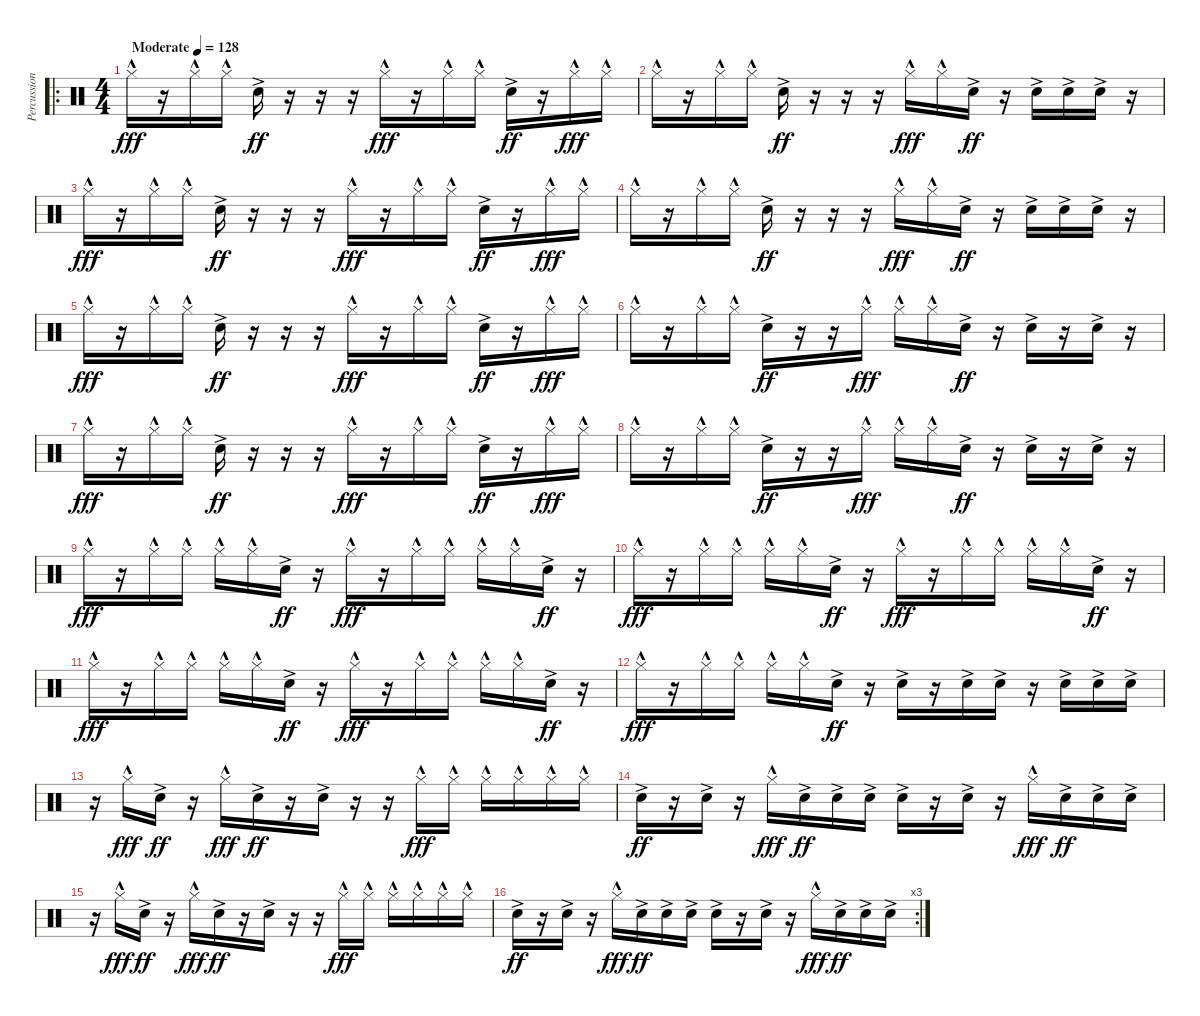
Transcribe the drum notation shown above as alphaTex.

\track ("Percussion" "Percussion") {instrument percussion}
\staff {score}
\articulation defaults
\ro
\ts (4 4)
\tempo (128 "Moderate")
\clef neutral
\ks c "Hi-Hat (closed)"{hac}.16{dy fff}
r.16 "Hi-Hat (closed)"{hac}.16 "Hi-Hat (closed)"{hac}.16 "Snare (hit) 2"{ac}.16{dy ff} r.16 r.16 r.16 "Hi-Hat (closed)"{hac}.16{dy fff} r.16 "Hi-Hat (closed)"{hac}.16 "Hi-Hat (closed)"{hac}.16 "Snare (hit) 2"{ac}.16{dy ff} r.16 "Hi-Hat (closed)"{hac}.16{dy fff} "Hi-Hat (closed)"{hac}.16 |
"Hi-Hat (closed)"{hac}.16 r.16 "Hi-Hat (closed)"{hac}.16 "Hi-Hat (closed)"{hac}.16 "Snare (hit) 2"{ac}.16{dy ff} r.16 r.16 r.16 "Hi-Hat (closed)"{hac}.16{dy fff} "Hi-Hat (closed)"{hac}.16 "Snare (hit) 2"{ac}.16{dy ff} r.16 "Snare (hit) 2"{ac}.16 "Snare (hit) 2"{ac}.16 "Snare (hit) 2"{ac}.16 r.16 |
"Hi-Hat (closed)"{hac}.16{dy fff} r.16 "Hi-Hat (closed)"{hac}.16 "Hi-Hat (closed)"{hac}.16 "Snare (hit) 2"{ac}.16{dy ff} r.16 r.16 r.16 "Hi-Hat (closed)"{hac}.16{dy fff} r.16 "Hi-Hat (closed)"{hac}.16 "Hi-Hat (closed)"{hac}.16 "Snare (hit) 2"{ac}.16{dy ff} r.16 "Hi-Hat (closed)"{hac}.16{dy fff} "Hi-Hat (closed)"{hac}.16 |
"Hi-Hat (closed)"{hac}.16 r.16 "Hi-Hat (closed)"{hac}.16 "Hi-Hat (closed)"{hac}.16 "Snare (hit) 2"{ac}.16{dy ff} r.16 r.16 r.16 "Hi-Hat (closed)"{hac}.16{dy fff} "Hi-Hat (closed)"{hac}.16 "Snare (hit) 2"{ac}.16{dy ff} r.16 "Snare (hit) 2"{ac}.16 "Snare (hit) 2"{ac}.16 "Snare (hit) 2"{ac}.16 r.16 |
"Hi-Hat (closed)"{hac}.16{dy fff} r.16 "Hi-Hat (closed)"{hac}.16 "Hi-Hat (closed)"{hac}.16 "Snare (hit) 2"{ac}.16{dy ff} r.16 r.16 r.16 "Hi-Hat (closed)"{hac}.16{dy fff} r.16 "Hi-Hat (closed)"{hac}.16 "Hi-Hat (closed)"{hac}.16 "Snare (hit) 2"{ac}.16{dy ff} r.16 "Hi-Hat (closed)"{hac}.16{dy fff} "Hi-Hat (closed)"{hac}.16 |
"Hi-Hat (closed)"{hac}.16 r.16 "Hi-Hat (closed)"{hac}.16 "Hi-Hat (closed)"{hac}.16 "Snare (hit) 2"{ac}.16{dy ff} r.16 r.16 "Hi-Hat (closed)"{hac}.16{dy fff} "Hi-Hat (closed)"{hac}.16 "Hi-Hat (closed)"{hac}.16 "Snare (hit) 2"{ac}.16{dy ff} r.16 "Snare (hit) 2"{ac}.16 r.16 "Snare (hit) 2"{ac}.16 r.16 |
"Hi-Hat (closed)"{hac}.16{dy fff} r.16 "Hi-Hat (closed)"{hac}.16 "Hi-Hat (closed)"{hac}.16 "Snare (hit) 2"{ac}.16{dy ff} r.16 r.16 r.16 "Hi-Hat (closed)"{hac}.16{dy fff} r.16 "Hi-Hat (closed)"{hac}.16 "Hi-Hat (closed)"{hac}.16 "Snare (hit) 2"{ac}.16{dy ff} r.16 "Hi-Hat (closed)"{hac}.16{dy fff} "Hi-Hat (closed)"{hac}.16 |
"Hi-Hat (closed)"{hac}.16 r.16 "Hi-Hat (closed)"{hac}.16 "Hi-Hat (closed)"{hac}.16 "Snare (hit) 2"{ac}.16{dy ff} r.16 r.16 "Hi-Hat (closed)"{hac}.16{dy fff} "Hi-Hat (closed)"{hac}.16 "Hi-Hat (closed)"{hac}.16 "Snare (hit) 2"{ac}.16{dy ff} r.16 "Snare (hit) 2"{ac}.16 r.16 "Snare (hit) 2"{ac}.16 r.16 |
"Hi-Hat (closed)"{hac}.16{dy fff} r.16 "Hi-Hat (closed)"{hac}.16 "Hi-Hat (closed)"{hac}.16 "Hi-Hat (closed)"{hac}.16 "Hi-Hat (closed)"{hac}.16 "Snare (hit) 2"{ac}.16{dy ff} r.16 "Hi-Hat (closed)"{hac}.16{dy fff} r.16 "Hi-Hat (closed)"{hac}.16 "Hi-Hat (closed)"{hac}.16 "Hi-Hat (closed)"{hac}.16 "Hi-Hat (closed)"{hac}.16 "Snare (hit) 2"{ac}.16{dy ff} r.16 |
"Hi-Hat (closed)"{hac}.16{dy fff} r.16 "Hi-Hat (closed)"{hac}.16 "Hi-Hat (closed)"{hac}.16 "Hi-Hat (closed)"{hac}.16 "Hi-Hat (closed)"{hac}.16 "Snare (hit) 2"{ac}.16{dy ff} r.16 "Hi-Hat (closed)"{hac}.16{dy fff} r.16 "Hi-Hat (closed)"{hac}.16 "Hi-Hat (closed)"{hac}.16 "Hi-Hat (closed)"{hac}.16 "Hi-Hat (closed)"{hac}.16 "Snare (hit) 2"{ac}.16{dy ff} r.16 |
"Hi-Hat (closed)"{hac}.16{dy fff} r.16 "Hi-Hat (closed)"{hac}.16 "Hi-Hat (closed)"{hac}.16 "Hi-Hat (closed)"{hac}.16 "Hi-Hat (closed)"{hac}.16 "Snare (hit) 2"{ac}.16{dy ff} r.16 "Hi-Hat (closed)"{hac}.16{dy fff} r.16 "Hi-Hat (closed)"{hac}.16 "Hi-Hat (closed)"{hac}.16 "Hi-Hat (closed)"{hac}.16 "Hi-Hat (closed)"{hac}.16 "Snare (hit) 2"{ac}.16{dy ff} r.16 |
"Hi-Hat (closed)"{hac}.16{dy fff} r.16 "Hi-Hat (closed)"{hac}.16 "Hi-Hat (closed)"{hac}.16 "Hi-Hat (closed)"{hac}.16 "Hi-Hat (closed)"{hac}.16 "Snare (hit) 2"{ac}.16{dy ff} r.16 "Snare (hit) 2"{ac}.16 r.16 "Snare (hit) 2"{ac}.16 "Snare (hit) 2"{ac}.16 r.16 "Snare (hit) 2"{ac}.16 "Snare (hit) 2"{ac}.16 "Snare (hit) 2"{ac}.16 |
r.16 "Hi-Hat (closed)"{hac}.16{dy fff} "Snare (hit) 2"{ac}.16{dy ff} r.16 "Hi-Hat (closed)"{hac}.16{dy fff} "Snare (hit) 2"{ac}.16{dy ff} r.16 "Snare (hit) 2"{ac}.16 r.16 r.16 "Hi-Hat (closed)"{hac}.16{dy fff} "Hi-Hat (closed)"{hac}.16 "Hi-Hat (closed)"{hac}.16 "Hi-Hat (closed)"{hac}.16 "Hi-Hat (closed)"{hac}.16 "Hi-Hat (closed)"{hac}.16 |
"Snare (hit) 2"{ac}.16{dy ff} r.16 "Snare (hit) 2"{ac}.16 r.16 "Hi-Hat (closed)"{hac}.16{dy fff} "Snare (hit) 2"{ac}.16{dy ff} "Snare (hit) 2"{ac}.16 "Snare (hit) 2"{ac}.16 "Snare (hit) 2"{ac}.16 r.16 "Snare (hit) 2"{ac}.16 r.16 "Hi-Hat (closed)"{hac}.16{dy fff} "Snare (hit) 2"{ac}.16{dy ff} "Snare (hit) 2"{ac}.16 "Snare (hit) 2"{ac}.16 |
r.16 "Hi-Hat (closed)"{hac}.16{dy fff} "Snare (hit) 2"{ac}.16{dy ff} r.16 "Hi-Hat (closed)"{hac}.16{dy fff} "Snare (hit) 2"{ac}.16{dy ff} r.16 "Snare (hit) 2"{ac}.16 r.16 r.16 "Hi-Hat (closed)"{hac}.16{dy fff} "Hi-Hat (closed)"{hac}.16 "Hi-Hat (closed)"{hac}.16 "Hi-Hat (closed)"{hac}.16 "Hi-Hat (closed)"{hac}.16 "Hi-Hat (closed)"{hac}.16 |
\rc 3 "Snare (hit) 2"{ac}.16{dy ff}
r.16 "Snare (hit) 2"{ac}.16 r.16 "Hi-Hat (closed)"{hac}.16{dy fff} "Snare (hit) 2"{ac}.16{dy ff} "Snare (hit) 2"{ac}.16 "Snare (hit) 2"{ac}.16 "Snare (hit) 2"{ac}.16 r.16 "Snare (hit) 2"{ac}.16 r.16 "Hi-Hat (closed)"{hac}.16{dy fff} "Snare (hit) 2"{ac}.16{dy ff} "Snare (hit) 2"{ac}.16 "Snare (hit) 2"{ac}.16
